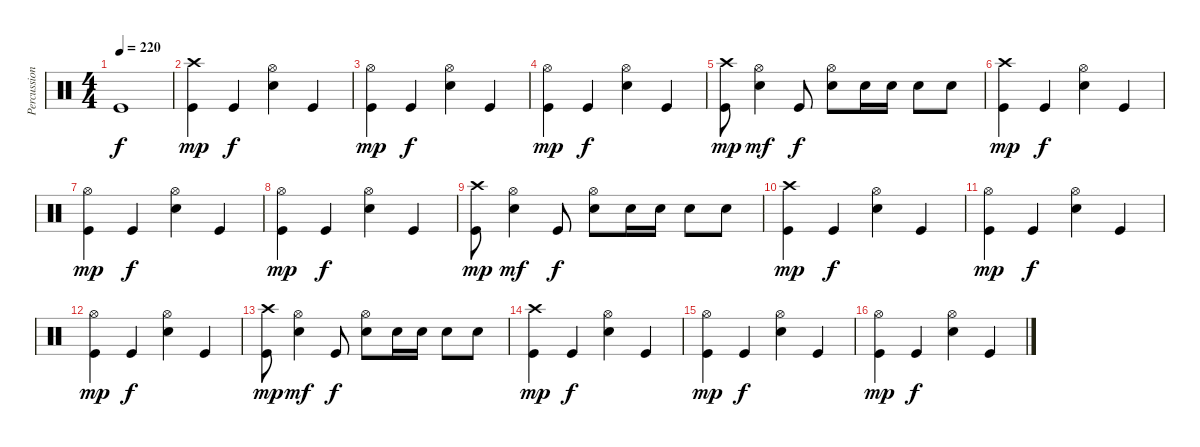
\track ("Percussion" "Percussion") {instrument percussion}
\staff {score}
\articulation defaults
\ts (4 4)
\tempo 220
\clef neutral
\ks c "Kick (hit)".1{dy f}
|
("Crash high (hit)" "Kick (hit)").4{dy mp} "Kick (hit)".4{dy f} ("Hi-Hat (open)" "Electric Snare (hit)").4 "Kick (hit)".4 |
("Hi-Hat (open)" "Kick (hit)").4{dy mp} "Kick (hit)".4{dy f} ("Hi-Hat (open)" "Electric Snare (hit)").4 "Kick (hit)".4 |
("Hi-Hat (open)" "Kick (hit)").4{dy mp} "Kick (hit)".4{dy f} ("Hi-Hat (open)" "Electric Snare (hit)").4 "Kick (hit)".4 |
("Crash high (hit)" "Kick (hit)").8{dy mp} ("Hi-Hat (open)" "Electric Snare (hit)").4{dy mf} "Kick (hit)".8{dy f} ("Hi-Hat (open)" "Electric Snare (hit)").8 "Electric Snare (hit)".16 "Electric Snare (hit)".16 "Electric Snare (hit)".8 "Electric Snare (hit)".8 |
("Crash high (hit)" "Kick (hit)").4{dy mp} "Kick (hit)".4{dy f} ("Hi-Hat (open)" "Electric Snare (hit)").4 "Kick (hit)".4 |
("Hi-Hat (open)" "Kick (hit)").4{dy mp} "Kick (hit)".4{dy f} ("Hi-Hat (open)" "Electric Snare (hit)").4 "Kick (hit)".4 |
("Hi-Hat (open)" "Kick (hit)").4{dy mp} "Kick (hit)".4{dy f} ("Hi-Hat (open)" "Electric Snare (hit)").4 "Kick (hit)".4 |
("Crash high (hit)" "Kick (hit)").8{dy mp} ("Hi-Hat (open)" "Electric Snare (hit)").4{dy mf} "Kick (hit)".8{dy f} ("Hi-Hat (open)" "Electric Snare (hit)").8 "Electric Snare (hit)".16 "Electric Snare (hit)".16 "Electric Snare (hit)".8 "Electric Snare (hit)".8 |
("Crash high (hit)" "Kick (hit)").4{dy mp} "Kick (hit)".4{dy f} ("Hi-Hat (open)" "Electric Snare (hit)").4 "Kick (hit)".4 |
("Hi-Hat (open)" "Kick (hit)").4{dy mp} "Kick (hit)".4{dy f} ("Hi-Hat (open)" "Electric Snare (hit)").4 "Kick (hit)".4 |
("Hi-Hat (open)" "Kick (hit)").4{dy mp} "Kick (hit)".4{dy f} ("Hi-Hat (open)" "Electric Snare (hit)").4 "Kick (hit)".4 |
("Crash high (hit)" "Kick (hit)").8{dy mp} ("Hi-Hat (open)" "Electric Snare (hit)").4{dy mf} "Kick (hit)".8{dy f} ("Hi-Hat (open)" "Electric Snare (hit)").8 "Electric Snare (hit)".16 "Electric Snare (hit)".16 "Electric Snare (hit)".8 "Electric Snare (hit)".8 |
("Crash high (hit)" "Kick (hit)").4{dy mp} "Kick (hit)".4{dy f} ("Hi-Hat (open)" "Electric Snare (hit)").4 "Kick (hit)".4 |
("Hi-Hat (open)" "Kick (hit)").4{dy mp} "Kick (hit)".4{dy f} ("Hi-Hat (open)" "Electric Snare (hit)").4 "Kick (hit)".4 |
("Hi-Hat (open)" "Kick (hit)").4{dy mp} "Kick (hit)".4{dy f} ("Hi-Hat (open)" "Electric Snare (hit)").4 "Kick (hit)".4
